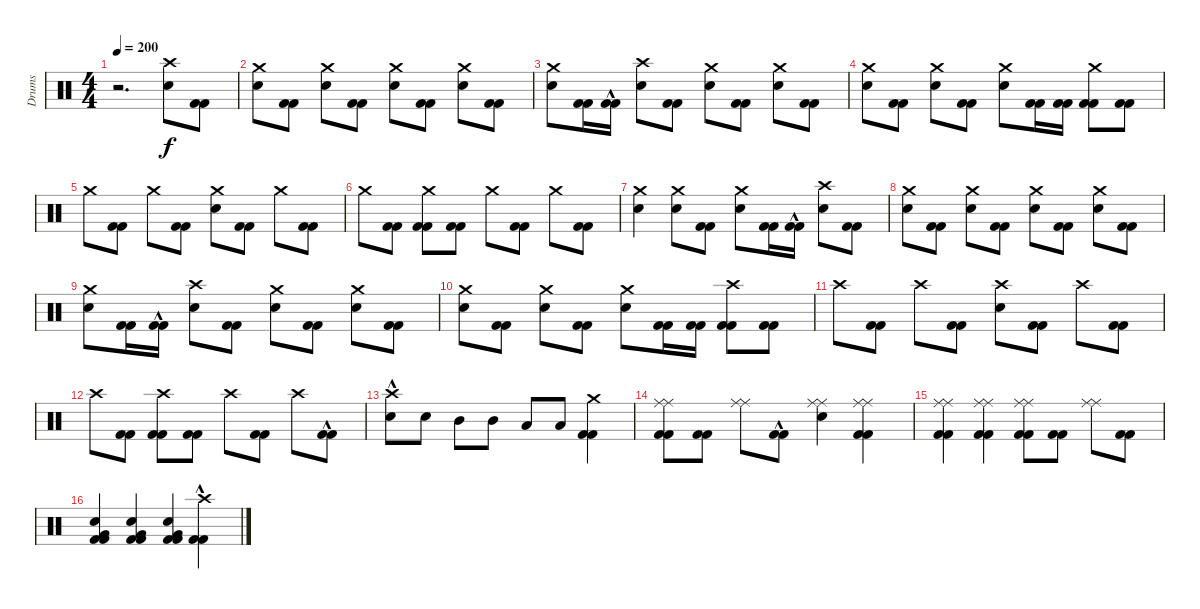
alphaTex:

\track ("Drums" "Drums") {instrument percussion}
\staff {score}
\articulation defaults
\ts (4 4)
\tempo 200
\clef neutral
\ks c
r.2{d dy f} ("Electric Snare (hit)" "Crash high (hit)").8 ("Kick (hit) 2" "Kick (hit) 2").8 |
("Electric Snare (hit)" "Crash medium (hit)").8 ("Kick (hit) 2" "Kick (hit) 2").8 ("Electric Snare (hit)" "Crash medium (hit)").8 ("Kick (hit) 2" "Kick (hit) 2").8 ("Electric Snare (hit)" "Crash medium (hit)").8 ("Kick (hit) 2" "Kick (hit) 2").8 ("Electric Snare (hit)" "Crash medium (hit)").8 ("Kick (hit) 2" "Kick (hit) 2").8 |
("Electric Snare (hit)" "Crash medium (hit)").8 ("Kick (hit) 2" "Kick (hit) 2").16 ("Kick (hit) 2"{hac} "Kick (hit) 2"{hac}).16 ("Electric Snare (hit)" "Crash high (hit)").8 ("Kick (hit) 2" "Kick (hit) 2").8 ("Electric Snare (hit)" "Crash medium (hit)").8 ("Kick (hit) 2" "Kick (hit) 2").8 ("Electric Snare (hit)" "Crash medium (hit)").8 ("Kick (hit) 2" "Kick (hit) 2").8 |
("Electric Snare (hit)" "Crash medium (hit)").8 ("Kick (hit) 2" "Kick (hit) 2").8 ("Electric Snare (hit)" "Crash medium (hit)").8 ("Kick (hit) 2" "Kick (hit) 2").8 ("Electric Snare (hit)" "Crash medium (hit)").8 ("Kick (hit) 2" "Kick (hit) 2").16 ("Kick (hit) 2" "Kick (hit) 2").16 ("Kick (hit) 2" "Kick (hit) 2" "Crash medium (hit)").8 ("Kick (hit) 2" "Kick (hit) 2").8 |
"Crash medium (hit)".8 ("Kick (hit) 2" "Kick (hit) 2").8 "Crash medium (hit)".8 ("Kick (hit) 2" "Kick (hit) 2").8 ("Electric Snare (hit)" "Crash medium (hit)").8 ("Kick (hit) 2" "Kick (hit) 2").8 "Crash medium (hit)".8 ("Kick (hit) 2" "Kick (hit) 2").8 |
"Crash medium (hit)".8 ("Kick (hit) 2" "Kick (hit) 2").8 ("Kick (hit) 2" "Kick (hit) 2" "Crash medium (hit)").8 ("Kick (hit) 2" "Kick (hit) 2").8 "Crash medium (hit)".8 ("Kick (hit) 2" "Kick (hit) 2").8 "Crash medium (hit)".8 ("Kick (hit) 2" "Kick (hit) 2").8 |
("Electric Snare (hit)" "Crash medium (hit)").4 ("Electric Snare (hit)" "Crash medium (hit)").8 ("Kick (hit) 2" "Kick (hit) 2").8 ("Electric Snare (hit)" "Crash medium (hit)").8 ("Kick (hit) 2" "Kick (hit) 2").16 ("Kick (hit) 2"{hac} "Kick (hit) 2"{hac}).16 ("Electric Snare (hit)" "Crash high (hit)").8 ("Kick (hit) 2" "Kick (hit) 2").8 |
("Electric Snare (hit)" "Crash medium (hit)").8 ("Kick (hit) 2" "Kick (hit) 2").8 ("Electric Snare (hit)" "Crash medium (hit)").8 ("Kick (hit) 2" "Kick (hit) 2").8 ("Electric Snare (hit)" "Crash medium (hit)").8 ("Kick (hit) 2" "Kick (hit) 2").8 ("Electric Snare (hit)" "Crash medium (hit)").8 ("Kick (hit) 2" "Kick (hit) 2").8 |
("Electric Snare (hit)" "Crash medium (hit)").8 ("Kick (hit) 2" "Kick (hit) 2").16 ("Kick (hit) 2"{hac} "Kick (hit) 2"{hac}).16 ("Electric Snare (hit)" "Crash high (hit)").8 ("Kick (hit) 2" "Kick (hit) 2").8 ("Electric Snare (hit)" "Crash medium (hit)").8 ("Kick (hit) 2" "Kick (hit) 2").8 ("Electric Snare (hit)" "Crash medium (hit)").8 ("Kick (hit) 2" "Kick (hit) 2").8 |
("Electric Snare (hit)" "Crash medium (hit)").8 ("Kick (hit) 2" "Kick (hit) 2").8 ("Electric Snare (hit)" "Crash medium (hit)").8 ("Kick (hit) 2" "Kick (hit) 2").8 ("Electric Snare (hit)" "Crash medium (hit)").8 ("Kick (hit) 2" "Kick (hit) 2").16 ("Kick (hit) 2" "Kick (hit) 2").16 ("Kick (hit) 2" "Kick (hit) 2" "Crash high (hit)").8 ("Kick (hit) 2" "Kick (hit) 2").8 |
"Crash high (hit)".8 ("Kick (hit) 2" "Kick (hit) 2").8 "Crash high (hit)".8 ("Kick (hit) 2" "Kick (hit) 2").8 ("Electric Snare (hit)" "Crash high (hit)").8 ("Kick (hit) 2" "Kick (hit) 2").8 "Crash high (hit)".8 ("Kick (hit) 2" "Kick (hit) 2").8 |
"Crash high (hit)".8 ("Kick (hit) 2" "Kick (hit) 2").8 ("Kick (hit) 2" "Kick (hit) 2" "Crash high (hit)").8 ("Kick (hit) 2" "Kick (hit) 2").8 "Crash high (hit)".8 ("Kick (hit) 2" "Kick (hit) 2").8 "Crash high (hit)".8 ("Kick (hit) 2"{hac} "Kick (hit) 2"{hac}).8 |
("Electric Snare (hit)" "Crash high (hit)"{hac}).8 "Electric Snare (hit)".8 "Mid Tom (hit)".8 "Mid Tom (hit)".8 "Low Tom (hit)".8 "Low Tom (hit)".8 ("Kick (hit) 2" "Kick (hit) 2" "Crash medium (hit)").4 |
("Kick (hit) 2" "Kick (hit) 2" "Ride (middle)" "Ride (middle)").8 ("Kick (hit) 2" "Kick (hit) 2").8 ("Ride (middle)" "Ride (middle)").8 ("Kick (hit) 2"{hac} "Kick (hit) 2"{hac}).8 ("Electric Snare (hit)" "Ride (middle)" "Ride (middle)").4 ("Kick (hit) 2" "Kick (hit) 2" "Ride (middle)" "Ride (middle)").4 |
("Kick (hit) 2" "Kick (hit) 2" "Ride (middle)" "Ride (middle)").4 ("Kick (hit) 2" "Kick (hit) 2" "Ride (middle)" "Ride (middle)").4 ("Kick (hit) 2" "Kick (hit) 2" "Ride (middle)" "Ride (middle)").8 ("Kick (hit) 2" "Kick (hit) 2").8 ("Ride (middle)" "Ride (middle)").8 ("Kick (hit) 2" "Kick (hit) 2").8 |
("Kick (hit) 2" "Kick (hit) 2" "Electric Snare (hit)" "Very Low Tom (hit)").4 ("Kick (hit) 2" "Kick (hit) 2" "Electric Snare (hit)" "Very Low Tom (hit)").4 ("Kick (hit) 2" "Kick (hit) 2" "Electric Snare (hit)" "Very Low Tom (hit)").4 ("Kick (hit) 2"{hac} "Kick (hit) 2"{hac} "Crash high (hit)").4
